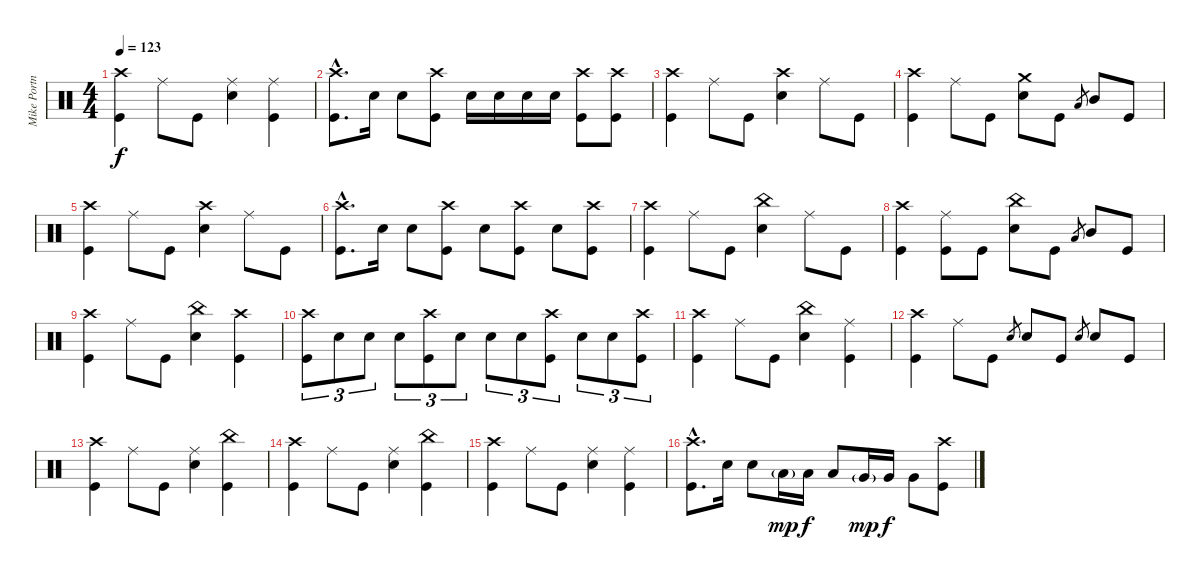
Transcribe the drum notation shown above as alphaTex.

\track ("Mike Portnoy" "Mike Portn") {instrument percussion}
\staff {score}
\articulation defaults
\ts (4 4)
\tempo 123
\clef neutral
\ks c
("Crash high (hit)" "Kick (hit)").4{dy f} "Ride (middle)".8 "Kick (hit)".8 ("Ride (middle)" "Electric Snare (hit)").4 ("Ride (middle)" "Kick (hit)").4 |
("Crash high (hit)"{hac} "Kick (hit)"{hac}).8{d} "Electric Snare (hit)".16 "Electric Snare (hit)".8 ("Crash high (hit)" "Kick (hit)").8 "Electric Snare (hit)".16 "Electric Snare (hit)".16 "Electric Snare (hit)".16 "Electric Snare (hit)".16 ("Crash high (hit)" "Kick (hit)").8 ("Crash high (hit)" "Kick (hit)").8 |
("Crash high (hit)" "Kick (hit)").4 "Ride (middle)".8 "Kick (hit)".8 ("Crash high (hit)" "Electric Snare (hit)").4 "Ride (middle)".8 "Kick (hit)".8 |
("Crash high (hit)" "Kick (hit)").4 "Ride (middle)".8 "Kick (hit)".8 ("Crash medium (hit)" "Electric Snare (hit)").8 "Kick (hit)".8 "Low Tom (hit)".8{gr} "Mid Tom (hit)".8 "Kick (hit)".8 |
("Crash high (hit)" "Kick (hit)").4 "Ride (middle)".8 "Kick (hit)".8 ("Crash high (hit)" "Electric Snare (hit)").4 "Ride (middle)".8 "Kick (hit)".8 |
("Crash high (hit)"{hac} "Kick (hit)"{hac}).8{d} "Electric Snare (hit)".16 "Electric Snare (hit)".8 ("Crash high (hit)" "Kick (hit)").8 "Electric Snare (hit)".8 ("Crash high (hit)" "Kick (hit)").8 "Electric Snare (hit)".8 ("Crash high (hit)" "Kick (hit)").8 |
("Crash high (hit)" "Kick (hit)").4 "Ride (middle)".8 "Kick (hit)".8 ("China (hit)" "Electric Snare (hit)").4 "Ride (middle)".8 "Kick (hit)".8 |
("Crash high (hit)" "Kick (hit)").4 ("Ride (middle)" "Kick (hit)").8 "Kick (hit)".8 ("China (hit)" "Electric Snare (hit)").8 "Kick (hit)".8 "Low Tom (hit)".8{gr} "Mid Tom (hit)".8 "Kick (hit)".8 |
("Crash high (hit)" "Kick (hit)").4 "Ride (middle)".8 "Kick (hit)".8 ("China (hit)" "Electric Snare (hit)").4 ("Crash high (hit)" "Kick (hit)").4 |
("Crash high (hit)" "Kick (hit)").8{tu (3 2)} "Electric Snare (hit)".8{tu (3 2)} "Electric Snare (hit)".8{tu (3 2)} "Electric Snare (hit)".8{tu (3 2)} ("Crash high (hit)" "Kick (hit)").8{tu (3 2)} "Electric Snare (hit)".8{tu (3 2)} "Electric Snare (hit)".8{tu (3 2)} "Electric Snare (hit)".8{tu (3 2)} ("Crash high (hit)" "Kick (hit)").8{tu (3 2)} "Electric Snare (hit)".8{tu (3 2)} "Electric Snare (hit)".8{tu (3 2)} ("Crash high (hit)" "Kick (hit)").8{tu (3 2)} |
("Crash high (hit)" "Kick (hit)").4 "Ride (middle)".8 "Kick (hit)".8 ("China (hit)" "Electric Snare (hit)").4 ("Ride (middle)" "Kick (hit)").4 |
("Crash high (hit)" "Kick (hit)").4 "Ride (middle)".8 "Kick (hit)".8 "Electric Snare (hit)".8{gr} "Electric Snare (hit)".8 "Kick (hit)".8 "Electric Snare (hit)".8{gr} "Electric Snare (hit)".8 "Kick (hit)".8 |
("Crash high (hit)" "Kick (hit)").4 "Ride (middle)".8 "Kick (hit)".8 ("Ride (middle)" "Electric Snare (hit)").4 ("China (hit)" "Kick (hit)").4 |
("Crash high (hit)" "Kick (hit)").4 "Ride (middle)".8 "Kick (hit)".8 ("Ride (middle)" "Electric Snare (hit)").4 ("China (hit)" "Kick (hit)").4 |
("Crash high (hit)" "Kick (hit)").4 "Ride (middle)".8 "Kick (hit)".8 ("Ride (middle)" "Electric Snare (hit)").4 ("Ride (middle)" "Kick (hit)").4 |
("Crash high (hit)"{hac} "Kick (hit)"{hac}).8{d} "Electric Snare (hit)".16 "Electric Snare (hit)".8 "Low Tom (hit)"{g}.16{dy mp} "Low Tom (hit)".16{dy f} "Low Tom (hit)".8 "Very Low Tom (hit)"{g}.16{dy mp} "Very Low Tom (hit)".16{dy f} "Very Low Tom (hit)".8 ("Crash high (hit)" "Kick (hit)").8
